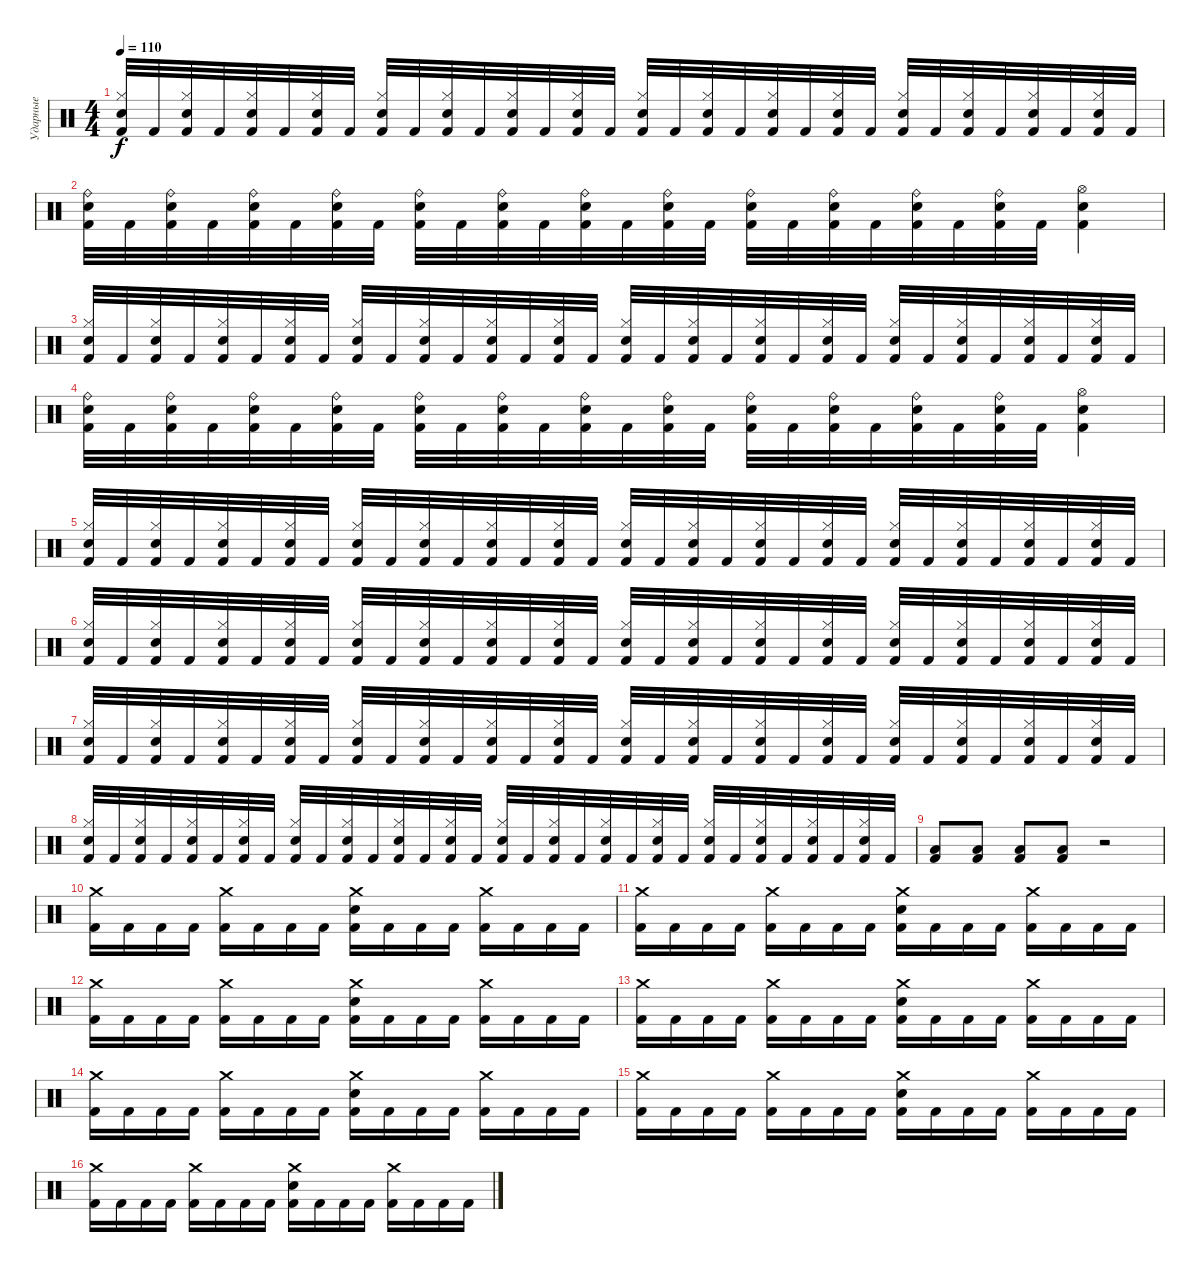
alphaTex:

\track ("Ударные" "Ударные") {instrument percussion}
\staff {score}
\articulation defaults
\ts (4 4)
\tempo 110
\clef neutral
\ks c
("Kick (hit) 2" "Hi-Hat (closed)" "Electric Snare (hit)").32{dy f} "Kick (hit) 2".32 ("Kick (hit) 2" "Hi-Hat (closed)" "Electric Snare (hit)").32 "Kick (hit) 2".32 ("Kick (hit) 2" "Hi-Hat (closed)" "Electric Snare (hit)").32 "Kick (hit) 2".32 ("Kick (hit) 2" "Hi-Hat (closed)" "Electric Snare (hit)").32 "Kick (hit) 2".32 ("Kick (hit) 2" "Hi-Hat (closed)" "Electric Snare (hit)").32 "Kick (hit) 2".32 ("Kick (hit) 2" "Hi-Hat (closed)" "Electric Snare (hit)").32 "Kick (hit) 2".32 ("Kick (hit) 2" "Hi-Hat (closed)" "Electric Snare (hit)").32 "Kick (hit) 2".32 ("Kick (hit) 2" "Hi-Hat (closed)" "Electric Snare (hit)").32 "Kick (hit) 2".32 ("Kick (hit) 2" "Hi-Hat (closed)" "Electric Snare (hit)").32 "Kick (hit) 2".32 ("Kick (hit) 2" "Hi-Hat (closed)" "Electric Snare (hit)").32 "Kick (hit) 2".32 ("Kick (hit) 2" "Hi-Hat (closed)" "Electric Snare (hit)").32 "Kick (hit) 2".32 ("Kick (hit) 2" "Hi-Hat (closed)" "Electric Snare (hit)").32 "Kick (hit) 2".32 ("Kick (hit) 2" "Hi-Hat (closed)" "Electric Snare (hit)").32 "Kick (hit) 2".32 ("Kick (hit) 2" "Hi-Hat (closed)" "Electric Snare (hit)").32 "Kick (hit) 2".32 ("Kick (hit) 2" "Hi-Hat (closed)" "Electric Snare (hit)").32 "Kick (hit) 2".32 ("Kick (hit) 2" "Hi-Hat (closed)" "Electric Snare (hit)").32 "Kick (hit) 2".32 |
("Kick (hit) 2" "Ride (bell)" "Electric Snare (hit)").32 "Kick (hit) 2".32 ("Kick (hit) 2" "Ride (bell)" "Electric Snare (hit)").32 "Kick (hit) 2".32 ("Kick (hit) 2" "Ride (bell)" "Electric Snare (hit)").32 "Kick (hit) 2".32 ("Kick (hit) 2" "Ride (bell)" "Electric Snare (hit)").32 "Kick (hit) 2".32 ("Kick (hit) 2" "Ride (bell)" "Electric Snare (hit)").32 "Kick (hit) 2".32 ("Kick (hit) 2" "Ride (bell)" "Electric Snare (hit)").32 "Kick (hit) 2".32 ("Kick (hit) 2" "Ride (bell)" "Electric Snare (hit)").32 "Kick (hit) 2".32 ("Kick (hit) 2" "Ride (bell)" "Electric Snare (hit)").32 "Kick (hit) 2".32 ("Kick (hit) 2" "Ride (bell)" "Electric Snare (hit)").32 "Kick (hit) 2".32 ("Kick (hit) 2" "Ride (bell)" "Electric Snare (hit)").32 "Kick (hit) 2".32 ("Kick (hit) 2" "Ride (bell)" "Electric Snare (hit)").32 "Kick (hit) 2".32 ("Kick (hit) 2" "Ride (bell)" "Electric Snare (hit)").32 "Kick (hit) 2".32 ("Kick (hit) 2" "Hi-Hat (open)" "Electric Snare (hit)").4 |
("Kick (hit) 2" "Hi-Hat (closed)" "Electric Snare (hit)").32 "Kick (hit) 2".32 ("Kick (hit) 2" "Hi-Hat (closed)" "Electric Snare (hit)").32 "Kick (hit) 2".32 ("Kick (hit) 2" "Hi-Hat (closed)" "Electric Snare (hit)").32 "Kick (hit) 2".32 ("Kick (hit) 2" "Hi-Hat (closed)" "Electric Snare (hit)").32 "Kick (hit) 2".32 ("Kick (hit) 2" "Hi-Hat (closed)" "Electric Snare (hit)").32 "Kick (hit) 2".32 ("Kick (hit) 2" "Hi-Hat (closed)" "Electric Snare (hit)").32 "Kick (hit) 2".32 ("Kick (hit) 2" "Hi-Hat (closed)" "Electric Snare (hit)").32 "Kick (hit) 2".32 ("Kick (hit) 2" "Hi-Hat (closed)" "Electric Snare (hit)").32 "Kick (hit) 2".32 ("Kick (hit) 2" "Hi-Hat (closed)" "Electric Snare (hit)").32 "Kick (hit) 2".32 ("Kick (hit) 2" "Hi-Hat (closed)" "Electric Snare (hit)").32 "Kick (hit) 2".32 ("Kick (hit) 2" "Hi-Hat (closed)" "Electric Snare (hit)").32 "Kick (hit) 2".32 ("Kick (hit) 2" "Hi-Hat (closed)" "Electric Snare (hit)").32 "Kick (hit) 2".32 ("Kick (hit) 2" "Hi-Hat (closed)" "Electric Snare (hit)").32 "Kick (hit) 2".32 ("Kick (hit) 2" "Hi-Hat (closed)" "Electric Snare (hit)").32 "Kick (hit) 2".32 ("Kick (hit) 2" "Hi-Hat (closed)" "Electric Snare (hit)").32 "Kick (hit) 2".32 ("Kick (hit) 2" "Hi-Hat (closed)" "Electric Snare (hit)").32 "Kick (hit) 2".32 |
("Kick (hit) 2" "Ride (bell)" "Electric Snare (hit)").32 "Kick (hit) 2".32 ("Kick (hit) 2" "Ride (bell)" "Electric Snare (hit)").32 "Kick (hit) 2".32 ("Kick (hit) 2" "Ride (bell)" "Electric Snare (hit)").32 "Kick (hit) 2".32 ("Kick (hit) 2" "Ride (bell)" "Electric Snare (hit)").32 "Kick (hit) 2".32 ("Kick (hit) 2" "Ride (bell)" "Electric Snare (hit)").32 "Kick (hit) 2".32 ("Kick (hit) 2" "Ride (bell)" "Electric Snare (hit)").32 "Kick (hit) 2".32 ("Kick (hit) 2" "Ride (bell)" "Electric Snare (hit)").32 "Kick (hit) 2".32 ("Kick (hit) 2" "Ride (bell)" "Electric Snare (hit)").32 "Kick (hit) 2".32 ("Kick (hit) 2" "Ride (bell)" "Electric Snare (hit)").32 "Kick (hit) 2".32 ("Kick (hit) 2" "Ride (bell)" "Electric Snare (hit)").32 "Kick (hit) 2".32 ("Kick (hit) 2" "Ride (bell)" "Electric Snare (hit)").32 "Kick (hit) 2".32 ("Kick (hit) 2" "Ride (bell)" "Electric Snare (hit)").32 "Kick (hit) 2".32 ("Kick (hit) 2" "Hi-Hat (open)" "Electric Snare (hit)").4 |
("Kick (hit) 2" "Hi-Hat (closed)" "Electric Snare (hit)").32 "Kick (hit) 2".32 ("Kick (hit) 2" "Hi-Hat (closed)" "Electric Snare (hit)").32 "Kick (hit) 2".32 ("Kick (hit) 2" "Hi-Hat (closed)" "Electric Snare (hit)").32 "Kick (hit) 2".32 ("Kick (hit) 2" "Hi-Hat (closed)" "Electric Snare (hit)").32 "Kick (hit) 2".32 ("Kick (hit) 2" "Hi-Hat (closed)" "Electric Snare (hit)").32 "Kick (hit) 2".32 ("Kick (hit) 2" "Hi-Hat (closed)" "Electric Snare (hit)").32 "Kick (hit) 2".32 ("Kick (hit) 2" "Hi-Hat (closed)" "Electric Snare (hit)").32 "Kick (hit) 2".32 ("Kick (hit) 2" "Hi-Hat (closed)" "Electric Snare (hit)").32 "Kick (hit) 2".32 ("Kick (hit) 2" "Hi-Hat (closed)" "Electric Snare (hit)").32 "Kick (hit) 2".32 ("Kick (hit) 2" "Hi-Hat (closed)" "Electric Snare (hit)").32 "Kick (hit) 2".32 ("Kick (hit) 2" "Hi-Hat (closed)" "Electric Snare (hit)").32 "Kick (hit) 2".32 ("Kick (hit) 2" "Hi-Hat (closed)" "Electric Snare (hit)").32 "Kick (hit) 2".32 ("Kick (hit) 2" "Hi-Hat (closed)" "Electric Snare (hit)").32 "Kick (hit) 2".32 ("Kick (hit) 2" "Hi-Hat (closed)" "Electric Snare (hit)").32 "Kick (hit) 2".32 ("Kick (hit) 2" "Hi-Hat (closed)" "Electric Snare (hit)").32 "Kick (hit) 2".32 ("Kick (hit) 2" "Hi-Hat (closed)" "Electric Snare (hit)").32 "Kick (hit) 2".32 |
("Kick (hit) 2" "Hi-Hat (closed)" "Electric Snare (hit)").32 "Kick (hit) 2".32 ("Kick (hit) 2" "Hi-Hat (closed)" "Electric Snare (hit)").32 "Kick (hit) 2".32 ("Kick (hit) 2" "Hi-Hat (closed)" "Electric Snare (hit)").32 "Kick (hit) 2".32 ("Kick (hit) 2" "Hi-Hat (closed)" "Electric Snare (hit)").32 "Kick (hit) 2".32 ("Kick (hit) 2" "Hi-Hat (closed)" "Electric Snare (hit)").32 "Kick (hit) 2".32 ("Kick (hit) 2" "Hi-Hat (closed)" "Electric Snare (hit)").32 "Kick (hit) 2".32 ("Kick (hit) 2" "Hi-Hat (closed)" "Electric Snare (hit)").32 "Kick (hit) 2".32 ("Kick (hit) 2" "Hi-Hat (closed)" "Electric Snare (hit)").32 "Kick (hit) 2".32 ("Kick (hit) 2" "Hi-Hat (closed)" "Electric Snare (hit)").32 "Kick (hit) 2".32 ("Kick (hit) 2" "Hi-Hat (closed)" "Electric Snare (hit)").32 "Kick (hit) 2".32 ("Kick (hit) 2" "Hi-Hat (closed)" "Electric Snare (hit)").32 "Kick (hit) 2".32 ("Kick (hit) 2" "Hi-Hat (closed)" "Electric Snare (hit)").32 "Kick (hit) 2".32 ("Kick (hit) 2" "Hi-Hat (closed)" "Electric Snare (hit)").32 "Kick (hit) 2".32 ("Kick (hit) 2" "Hi-Hat (closed)" "Electric Snare (hit)").32 "Kick (hit) 2".32 ("Kick (hit) 2" "Hi-Hat (closed)" "Electric Snare (hit)").32 "Kick (hit) 2".32 ("Kick (hit) 2" "Hi-Hat (closed)" "Electric Snare (hit)").32 "Kick (hit) 2".32 |
("Kick (hit) 2" "Hi-Hat (closed)" "Electric Snare (hit)").32 "Kick (hit) 2".32 ("Kick (hit) 2" "Hi-Hat (closed)" "Electric Snare (hit)").32 "Kick (hit) 2".32 ("Kick (hit) 2" "Hi-Hat (closed)" "Electric Snare (hit)").32 "Kick (hit) 2".32 ("Kick (hit) 2" "Hi-Hat (closed)" "Electric Snare (hit)").32 "Kick (hit) 2".32 ("Kick (hit) 2" "Hi-Hat (closed)" "Electric Snare (hit)").32 "Kick (hit) 2".32 ("Kick (hit) 2" "Hi-Hat (closed)" "Electric Snare (hit)").32 "Kick (hit) 2".32 ("Kick (hit) 2" "Hi-Hat (closed)" "Electric Snare (hit)").32 "Kick (hit) 2".32 ("Kick (hit) 2" "Hi-Hat (closed)" "Electric Snare (hit)").32 "Kick (hit) 2".32 ("Kick (hit) 2" "Hi-Hat (closed)" "Electric Snare (hit)").32 "Kick (hit) 2".32 ("Kick (hit) 2" "Hi-Hat (closed)" "Electric Snare (hit)").32 "Kick (hit) 2".32 ("Kick (hit) 2" "Hi-Hat (closed)" "Electric Snare (hit)").32 "Kick (hit) 2".32 ("Kick (hit) 2" "Hi-Hat (closed)" "Electric Snare (hit)").32 "Kick (hit) 2".32 ("Kick (hit) 2" "Hi-Hat (closed)" "Electric Snare (hit)").32 "Kick (hit) 2".32 ("Kick (hit) 2" "Hi-Hat (closed)" "Electric Snare (hit)").32 "Kick (hit) 2".32 ("Kick (hit) 2" "Hi-Hat (closed)" "Electric Snare (hit)").32 "Kick (hit) 2".32 ("Kick (hit) 2" "Hi-Hat (closed)" "Electric Snare (hit)").32 "Kick (hit) 2".32 |
("Kick (hit) 2" "Hi-Hat (closed)" "Electric Snare (hit)").32 "Kick (hit) 2".32 ("Kick (hit) 2" "Hi-Hat (closed)" "Electric Snare (hit)").32 "Kick (hit) 2".32 ("Kick (hit) 2" "Hi-Hat (closed)" "Electric Snare (hit)").32 "Kick (hit) 2".32 ("Kick (hit) 2" "Hi-Hat (closed)" "Electric Snare (hit)").32 "Kick (hit) 2".32 ("Kick (hit) 2" "Hi-Hat (closed)" "Electric Snare (hit)").32 "Kick (hit) 2".32 ("Kick (hit) 2" "Hi-Hat (closed)" "Electric Snare (hit)").32 "Kick (hit) 2".32 ("Kick (hit) 2" "Hi-Hat (closed)" "Electric Snare (hit)").32 "Kick (hit) 2".32 ("Kick (hit) 2" "Hi-Hat (closed)" "Electric Snare (hit)").32 "Kick (hit) 2".32 ("Kick (hit) 2" "Hi-Hat (closed)" "Electric Snare (hit)").32 "Kick (hit) 2".32 ("Kick (hit) 2" "Hi-Hat (closed)" "Electric Snare (hit)").32 "Kick (hit) 2".32 ("Kick (hit) 2" "Hi-Hat (closed)" "Electric Snare (hit)").32 "Kick (hit) 2".32 ("Kick (hit) 2" "Hi-Hat (closed)" "Electric Snare (hit)").32 "Kick (hit) 2".32 ("Kick (hit) 2" "Hi-Hat (closed)" "Electric Snare (hit)").32 "Kick (hit) 2".32 ("Kick (hit) 2" "Hi-Hat (closed)" "Electric Snare (hit)").32 "Kick (hit) 2".32 ("Kick (hit) 2" "Hi-Hat (closed)" "Electric Snare (hit)").32 "Kick (hit) 2".32 ("Kick (hit) 2" "Hi-Hat (closed)" "Electric Snare (hit)").32 "Kick (hit) 2".32 |
("Kick (hit) 2" "Low Tom (hit)").8 ("Kick (hit) 2" "Low Tom (hit)").8 ("Kick (hit) 2" "Low Tom (hit)").8 ("Kick (hit) 2" "Low Tom (hit)").8 r.2 |
("Kick (hit) 2" "Crash medium (hit)").16 "Kick (hit) 2".16 "Kick (hit) 2".16 "Kick (hit) 2".16 ("Kick (hit) 2" "Crash medium (hit)").16 "Kick (hit) 2".16 "Kick (hit) 2".16 "Kick (hit) 2".16 ("Kick (hit) 2" "Crash medium (hit)" "Electric Snare (hit)").16 "Kick (hit) 2".16 "Kick (hit) 2".16 "Kick (hit) 2".16 ("Kick (hit) 2" "Crash medium (hit)").16 "Kick (hit) 2".16 "Kick (hit) 2".16 "Kick (hit) 2".16 |
("Kick (hit) 2" "Crash medium (hit)").16 "Kick (hit) 2".16 "Kick (hit) 2".16 "Kick (hit) 2".16 ("Kick (hit) 2" "Crash medium (hit)").16 "Kick (hit) 2".16 "Kick (hit) 2".16 "Kick (hit) 2".16 ("Kick (hit) 2" "Crash medium (hit)" "Electric Snare (hit)").16 "Kick (hit) 2".16 "Kick (hit) 2".16 "Kick (hit) 2".16 ("Kick (hit) 2" "Crash medium (hit)").16 "Kick (hit) 2".16 "Kick (hit) 2".16 "Kick (hit) 2".16 |
("Kick (hit) 2" "Crash medium (hit)").16 "Kick (hit) 2".16 "Kick (hit) 2".16 "Kick (hit) 2".16 ("Kick (hit) 2" "Crash medium (hit)").16 "Kick (hit) 2".16 "Kick (hit) 2".16 "Kick (hit) 2".16 ("Kick (hit) 2" "Crash medium (hit)" "Electric Snare (hit)").16 "Kick (hit) 2".16 "Kick (hit) 2".16 "Kick (hit) 2".16 ("Kick (hit) 2" "Crash medium (hit)").16 "Kick (hit) 2".16 "Kick (hit) 2".16 "Kick (hit) 2".16 |
("Kick (hit) 2" "Crash medium (hit)").16 "Kick (hit) 2".16 "Kick (hit) 2".16 "Kick (hit) 2".16 ("Kick (hit) 2" "Crash medium (hit)").16 "Kick (hit) 2".16 "Kick (hit) 2".16 "Kick (hit) 2".16 ("Kick (hit) 2" "Crash medium (hit)" "Electric Snare (hit)").16 "Kick (hit) 2".16 "Kick (hit) 2".16 "Kick (hit) 2".16 ("Kick (hit) 2" "Crash medium (hit)").16 "Kick (hit) 2".16 "Kick (hit) 2".16 "Kick (hit) 2".16 |
("Kick (hit) 2" "Crash medium (hit)").16 "Kick (hit) 2".16 "Kick (hit) 2".16 "Kick (hit) 2".16 ("Kick (hit) 2" "Crash medium (hit)").16 "Kick (hit) 2".16 "Kick (hit) 2".16 "Kick (hit) 2".16 ("Kick (hit) 2" "Crash medium (hit)" "Electric Snare (hit)").16 "Kick (hit) 2".16 "Kick (hit) 2".16 "Kick (hit) 2".16 ("Kick (hit) 2" "Crash medium (hit)").16 "Kick (hit) 2".16 "Kick (hit) 2".16 "Kick (hit) 2".16 |
("Kick (hit) 2" "Crash medium (hit)").16 "Kick (hit) 2".16 "Kick (hit) 2".16 "Kick (hit) 2".16 ("Kick (hit) 2" "Crash medium (hit)").16 "Kick (hit) 2".16 "Kick (hit) 2".16 "Kick (hit) 2".16 ("Kick (hit) 2" "Crash medium (hit)" "Electric Snare (hit)").16 "Kick (hit) 2".16 "Kick (hit) 2".16 "Kick (hit) 2".16 ("Kick (hit) 2" "Crash medium (hit)").16 "Kick (hit) 2".16 "Kick (hit) 2".16 "Kick (hit) 2".16 |
("Kick (hit) 2" "Crash medium (hit)").16 "Kick (hit) 2".16 "Kick (hit) 2".16 "Kick (hit) 2".16 ("Kick (hit) 2" "Crash medium (hit)").16 "Kick (hit) 2".16 "Kick (hit) 2".16 "Kick (hit) 2".16 ("Kick (hit) 2" "Crash medium (hit)" "Electric Snare (hit)").16 "Kick (hit) 2".16 "Kick (hit) 2".16 "Kick (hit) 2".16 ("Kick (hit) 2" "Crash medium (hit)").16 "Kick (hit) 2".16 "Kick (hit) 2".16 "Kick (hit) 2".16
